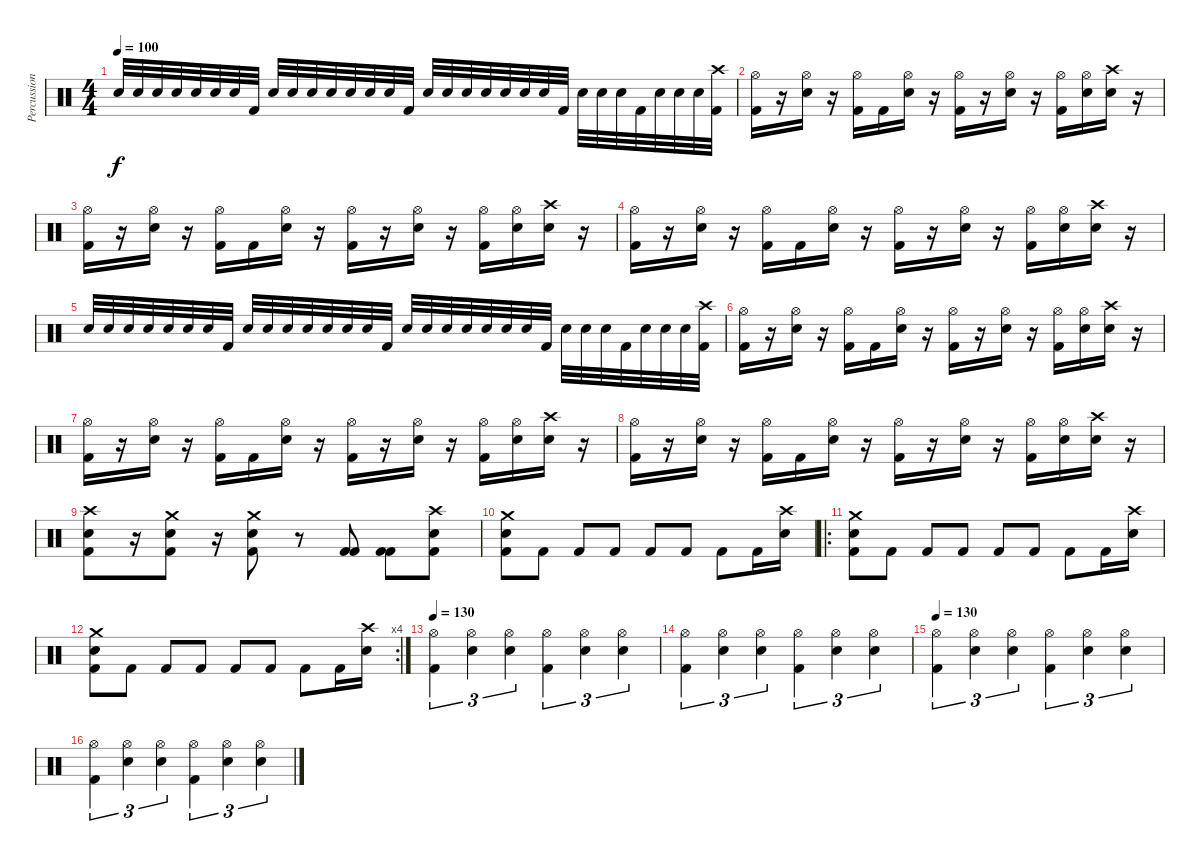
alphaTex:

\track ("Percussions" "Percussion") {instrument percussion}
\staff {score}
\articulation defaults
\ts (4 4)
\tempo 100
\clef neutral
\ks c "Electric Snare (hit)".32{dy f} "Electric Snare (hit)".32 "Electric Snare (hit)".32 "Electric Snare (hit)".32 "Electric Snare (hit)".32 "Electric Snare (hit)".32 "Electric Snare (hit)".32 "Kick (hit) 2".32 "Electric Snare (hit)".32 "Electric Snare (hit)".32 "Electric Snare (hit)".32 "Electric Snare (hit)".32 "Electric Snare (hit)".32 "Electric Snare (hit)".32 "Electric Snare (hit)".32 "Kick (hit) 2".32 "Electric Snare (hit)".32 "Electric Snare (hit)".32 "Electric Snare (hit)".32 "Electric Snare (hit)".32 "Electric Snare (hit)".32 "Electric Snare (hit)".32 "Electric Snare (hit)".32 "Kick (hit) 2".32 "Electric Snare (hit)".32 "Electric Snare (hit)".32 "Electric Snare (hit)".32 "Kick (hit) 2".32 "Electric Snare (hit)".32 "Electric Snare (hit)".32 "Electric Snare (hit)".32
("Crash high (hit)" "Kick (hit) 2").32 |
("Hi-Hat (open)" "Kick (hit) 2").16 r.16 ("Hi-Hat (open)" "Electric Snare (hit)").16 r.16 ("Hi-Hat (open)" "Kick (hit) 2").16 "Kick (hit) 2".16 ("Hi-Hat (open)" "Electric Snare (hit)").16 r.16 ("Hi-Hat (open)" "Kick (hit) 2").16 r.16 ("Hi-Hat (open)" "Electric Snare (hit)").16 r.16 ("Hi-Hat (open)" "Kick (hit) 2").16 ("Hi-Hat (open)" "Electric Snare (hit)").16 ("Crash high (hit)" "Electric Snare (hit)").16 r.16 |
("Hi-Hat (open)" "Kick (hit) 2").16 r.16 ("Hi-Hat (open)" "Electric Snare (hit)").16 r.16 ("Hi-Hat (open)" "Kick (hit) 2").16 "Kick (hit) 2".16 ("Hi-Hat (open)" "Electric Snare (hit)").16 r.16 ("Hi-Hat (open)" "Kick (hit) 2").16 r.16 ("Hi-Hat (open)" "Electric Snare (hit)").16 r.16 ("Hi-Hat (open)" "Kick (hit) 2").16 ("Hi-Hat (open)" "Electric Snare (hit)").16 ("Crash high (hit)" "Electric Snare (hit)").16 r.16 |
("Hi-Hat (open)" "Kick (hit) 2").16 r.16 ("Hi-Hat (open)" "Electric Snare (hit)").16 r.16 ("Hi-Hat (open)" "Kick (hit) 2").16 "Kick (hit) 2".16 ("Hi-Hat (open)" "Electric Snare (hit)").16 r.16 ("Hi-Hat (open)" "Kick (hit) 2").16 r.16 ("Hi-Hat (open)" "Electric Snare (hit)").16 r.16 ("Hi-Hat (open)" "Kick (hit) 2").16 ("Hi-Hat (open)" "Electric Snare (hit)").16 ("Crash high (hit)" "Electric Snare (hit)").16 r.16 |
"Electric Snare (hit)".32 "Electric Snare (hit)".32 "Electric Snare (hit)".32 "Electric Snare (hit)".32 "Electric Snare (hit)".32 "Electric Snare (hit)".32 "Electric Snare (hit)".32 "Kick (hit) 2".32 "Electric Snare (hit)".32 "Electric Snare (hit)".32 "Electric Snare (hit)".32 "Electric Snare (hit)".32 "Electric Snare (hit)".32 "Electric Snare (hit)".32 "Electric Snare (hit)".32 "Kick (hit) 2".32 "Electric Snare (hit)".32 "Electric Snare (hit)".32 "Electric Snare (hit)".32 "Electric Snare (hit)".32 "Electric Snare (hit)".32 "Electric Snare (hit)".32 "Electric Snare (hit)".32 "Kick (hit) 2".32 "Electric Snare (hit)".32 "Electric Snare (hit)".32 "Electric Snare (hit)".32 "Kick (hit) 2".32 "Electric Snare (hit)".32 "Electric Snare (hit)".32 "Electric Snare (hit)".32 ("Crash high (hit)" "Kick (hit) 2").32 |
("Hi-Hat (open)" "Kick (hit) 2").16 r.16 ("Hi-Hat (open)" "Electric Snare (hit)").16 r.16 ("Hi-Hat (open)" "Kick (hit) 2").16 "Kick (hit) 2".16 ("Hi-Hat (open)" "Electric Snare (hit)").16 r.16 ("Hi-Hat (open)" "Kick (hit) 2").16 r.16 ("Hi-Hat (open)" "Electric Snare (hit)").16 r.16 ("Hi-Hat (open)" "Kick (hit) 2").16 ("Hi-Hat (open)" "Electric Snare (hit)").16 ("Crash high (hit)" "Electric Snare (hit)").16 r.16 |
("Hi-Hat (open)" "Kick (hit) 2").16 r.16 ("Hi-Hat (open)" "Electric Snare (hit)").16 r.16 ("Hi-Hat (open)" "Kick (hit) 2").16 "Kick (hit) 2".16 ("Hi-Hat (open)" "Electric Snare (hit)").16 r.16 ("Hi-Hat (open)" "Kick (hit) 2").16 r.16 ("Hi-Hat (open)" "Electric Snare (hit)").16 r.16 ("Hi-Hat (open)" "Kick (hit) 2").16 ("Hi-Hat (open)" "Electric Snare (hit)").16 ("Crash high (hit)" "Electric Snare (hit)").16 r.16 |
("Hi-Hat (open)" "Kick (hit) 2").16 r.16 ("Hi-Hat (open)" "Electric Snare (hit)").16 r.16 ("Hi-Hat (open)" "Kick (hit) 2").16 "Kick (hit) 2".16 ("Hi-Hat (open)" "Electric Snare (hit)").16 r.16 ("Hi-Hat (open)" "Kick (hit) 2").16 r.16 ("Hi-Hat (open)" "Electric Snare (hit)").16 r.16 ("Hi-Hat (open)" "Kick (hit) 2").16 ("Hi-Hat (open)" "Electric Snare (hit)").16 ("Crash high (hit)" "Electric Snare (hit)").16 r.16 |
("Crash high (hit)" "Electric Snare (hit)" "Kick (hit) 2").8 r.16 ("Crash medium (hit)" "Electric Snare (hit)" "Kick (hit) 2").8 r.16 ("Crash medium (hit)" "Electric Snare (hit)" "Kick (hit) 2").8 r.8 ("Kick (hit) 2" "Kick (hit) 2").8 ("Kick (hit) 2" "Kick (hit) 2").8 ("Crash high (hit)" "Electric Snare (hit)" "Kick (hit) 2").8 |
("Crash medium (hit)" "Electric Snare (hit)" "Kick (hit) 2").8 "Kick (hit) 2".8 "Kick (hit) 2".8 "Kick (hit) 2".8 "Kick (hit) 2".8 "Kick (hit) 2".8 "Kick (hit) 2".8 "Kick (hit) 2".16 ("Crash high (hit)" "Electric Snare (hit)").16 |
\ro
("Crash medium (hit)" "Electric Snare (hit)" "Kick (hit) 2").8 "Kick (hit) 2".8 "Kick (hit) 2".8 "Kick (hit) 2".8 "Kick (hit) 2".8 "Kick (hit) 2".8 "Kick (hit) 2".8 "Kick (hit) 2".16 ("Crash high (hit)" "Electric Snare (hit)").16 |
\rc 4
("Crash medium (hit)" "Electric Snare (hit)" "Kick (hit) 2").8 "Kick (hit) 2".8 "Kick (hit) 2".8 "Kick (hit) 2".8 "Kick (hit) 2".8 "Kick (hit) 2".8 "Kick (hit) 2".8 "Kick (hit) 2".16 ("Crash high (hit)" "Electric Snare (hit)").16 |
\tempo 130
("Hi-Hat (open)" "Kick (hit) 2").4{tu (3 2)} ("Hi-Hat (open)" "Electric Snare (hit)").4{tu (3 2)} ("Hi-Hat (open)" "Electric Snare (hit)").4{tu (3 2)} ("Hi-Hat (open)" "Kick (hit) 2").4{tu (3 2)} ("Hi-Hat (open)" "Electric Snare (hit)").4{tu (3 2)} ("Hi-Hat (open)" "Electric Snare (hit)").4{tu (3 2)} |
("Hi-Hat (open)" "Kick (hit) 2").4{tu (3 2)} ("Hi-Hat (open)" "Electric Snare (hit)").4{tu (3 2)} ("Hi-Hat (open)" "Electric Snare (hit)").4{tu (3 2)} ("Hi-Hat (open)" "Kick (hit) 2").4{tu (3 2)} ("Hi-Hat (open)" "Electric Snare (hit)").4{tu (3 2)} ("Hi-Hat (open)" "Electric Snare (hit)").4{tu (3 2)} |
\tempo 130
("Hi-Hat (open)" "Kick (hit) 2").4{tu (3 2)} ("Hi-Hat (open)" "Electric Snare (hit)").4{tu (3 2)} ("Hi-Hat (open)" "Electric Snare (hit)").4{tu (3 2)} ("Hi-Hat (open)" "Kick (hit) 2").4{tu (3 2)} ("Hi-Hat (open)" "Electric Snare (hit)").4{tu (3 2)} ("Hi-Hat (open)" "Electric Snare (hit)").4{tu (3 2)} |
("Hi-Hat (open)" "Kick (hit) 2").4{tu (3 2)} ("Hi-Hat (open)" "Electric Snare (hit)").4{tu (3 2)} ("Hi-Hat (open)" "Electric Snare (hit)").4{tu (3 2)} ("Hi-Hat (open)" "Kick (hit) 2").4{tu (3 2)} ("Hi-Hat (open)" "Electric Snare (hit)").4{tu (3 2)} ("Hi-Hat (open)" "Electric Snare (hit)").4{tu (3 2)}
